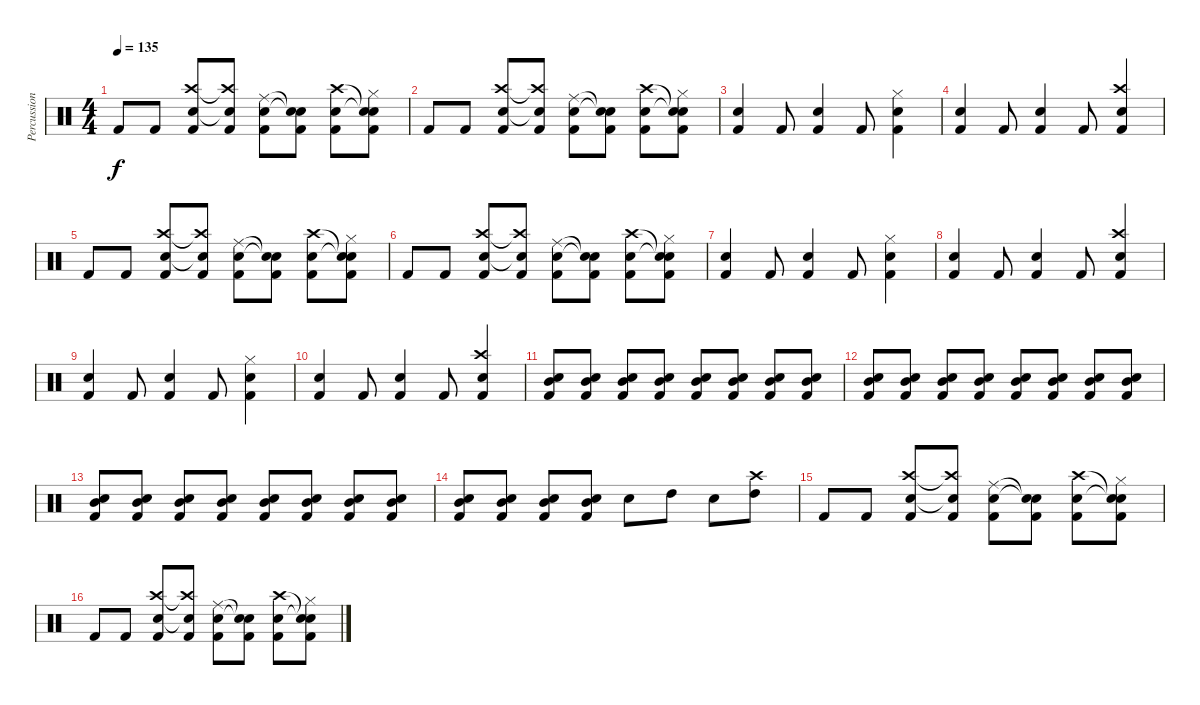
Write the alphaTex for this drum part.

\track ("Percussion" "Percussion") {instrument percussion}
\staff {score}
\articulation defaults
\ts (4 4)
\tempo 135
\clef neutral
\ks c "Kick (hit) 2".8{dy f} "Kick (hit) 2".8
("Crash high (hit)" "Electric Snare (hit)" "Kick (hit) 2").8 ("Crash high (hit)"{t} "Electric Snare (hit)"{t} "Kick (hit) 2").8 ("Ride (middle)" "Electric Snare (hit)" "Kick (hit) 2").8 ("Snare (hit)"{t} "Snare (hit)"{t} "Kick (hit) 2").8 ("Crash high (hit)" "Electric Snare (hit)" "Kick (hit) 2").8 ("Snare (hit)"{t} "Snare (hit)"{t} "Hi-Hat (closed)" "Kick (hit) 2").8 |
"Kick (hit) 2".8 "Kick (hit) 2".8 ("Crash high (hit)" "Electric Snare (hit)" "Kick (hit) 2").8 ("Crash high (hit)"{t} "Electric Snare (hit)"{t} "Kick (hit) 2").8 ("Ride (middle)" "Electric Snare (hit)" "Kick (hit) 2").8 ("Snare (hit)"{t} "Snare (hit)"{t} "Kick (hit) 2").8 ("Crash high (hit)" "Electric Snare (hit)" "Kick (hit) 2").8 ("Snare (hit)"{t} "Snare (hit)"{t} "Hi-Hat (closed)" "Kick (hit) 2").8 |
("Electric Snare (hit)" "Kick (hit) 2").4 "Kick (hit) 2".8 ("Electric Snare (hit)" "Kick (hit) 2").4 "Kick (hit) 2".8 ("Hi-Hat (closed)" "Electric Snare (hit)" "Kick (hit) 2").4 |
("Electric Snare (hit)" "Kick (hit) 2").4 "Kick (hit) 2".8 ("Electric Snare (hit)" "Kick (hit) 2").4 "Kick (hit) 2".8 ("Crash high (hit)" "Electric Snare (hit)" "Kick (hit) 2").4 |
"Kick (hit) 2".8 "Kick (hit) 2".8 ("Crash high (hit)" "Electric Snare (hit)" "Kick (hit) 2").8 ("Crash high (hit)"{t} "Electric Snare (hit)"{t} "Kick (hit) 2").8 ("Ride (middle)" "Electric Snare (hit)" "Kick (hit) 2").8 ("Snare (hit)"{t} "Snare (hit)"{t} "Kick (hit) 2").8 ("Crash high (hit)" "Electric Snare (hit)" "Kick (hit) 2").8 ("Snare (hit)"{t} "Snare (hit)"{t} "Hi-Hat (closed)" "Kick (hit) 2").8 |
"Kick (hit) 2".8 "Kick (hit) 2".8 ("Crash high (hit)" "Electric Snare (hit)" "Kick (hit) 2").8 ("Crash high (hit)"{t} "Electric Snare (hit)"{t} "Kick (hit) 2").8 ("Ride (middle)" "Electric Snare (hit)" "Kick (hit) 2").8 ("Snare (hit)"{t} "Snare (hit)"{t} "Kick (hit) 2").8 ("Crash high (hit)" "Electric Snare (hit)" "Kick (hit) 2").8 ("Snare (hit)"{t} "Snare (hit)"{t} "Hi-Hat (closed)" "Kick (hit) 2").8 |
("Electric Snare (hit)" "Kick (hit) 2").4 "Kick (hit) 2".8 ("Electric Snare (hit)" "Kick (hit) 2").4 "Kick (hit) 2".8 ("Hi-Hat (closed)" "Electric Snare (hit)" "Kick (hit) 2").4 |
("Electric Snare (hit)" "Kick (hit) 2").4 "Kick (hit) 2".8 ("Electric Snare (hit)" "Kick (hit) 2").4 "Kick (hit) 2".8 ("Crash high (hit)" "Electric Snare (hit)" "Kick (hit) 2").4 |
("Electric Snare (hit)" "Kick (hit) 2").4 "Kick (hit) 2".8 ("Electric Snare (hit)" "Kick (hit) 2").4 "Kick (hit) 2".8 ("Hi-Hat (closed)" "Electric Snare (hit)" "Kick (hit) 2").4 |
("Electric Snare (hit)" "Kick (hit) 2").4 "Kick (hit) 2".8 ("Electric Snare (hit)" "Kick (hit) 2").4 "Kick (hit) 2".8 ("Crash high (hit)" "Electric Snare (hit)" "Kick (hit) 2").4 |
("Electric Snare (hit)" "Mid Tom (hit)" "Kick (hit) 2").8 ("Electric Snare (hit)" "Mid Tom (hit)" "Kick (hit) 2").8 ("Electric Snare (hit)" "Mid Tom (hit)" "Kick (hit) 2").8 ("Electric Snare (hit)" "Mid Tom (hit)" "Kick (hit) 2").8 ("Electric Snare (hit)" "Mid Tom (hit)" "Kick (hit) 2").8 ("Electric Snare (hit)" "Mid Tom (hit)" "Kick (hit) 2").8 ("Electric Snare (hit)" "Mid Tom (hit)" "Kick (hit) 2").8 ("Electric Snare (hit)" "Mid Tom (hit)" "Kick (hit) 2").8 |
("Electric Snare (hit)" "Mid Tom (hit)" "Kick (hit) 2").8 ("Electric Snare (hit)" "Mid Tom (hit)" "Kick (hit) 2").8 ("Electric Snare (hit)" "Mid Tom (hit)" "Kick (hit) 2").8 ("Electric Snare (hit)" "Mid Tom (hit)" "Kick (hit) 2").8 ("Electric Snare (hit)" "Mid Tom (hit)" "Kick (hit) 2").8 ("Electric Snare (hit)" "Mid Tom (hit)" "Kick (hit) 2").8 ("Electric Snare (hit)" "Mid Tom (hit)" "Kick (hit) 2").8 ("Electric Snare (hit)" "Mid Tom (hit)" "Kick (hit) 2").8 |
("Electric Snare (hit)" "Mid Tom (hit)" "Kick (hit) 2").8 ("Electric Snare (hit)" "Mid Tom (hit)" "Kick (hit) 2").8 ("Electric Snare (hit)" "Mid Tom (hit)" "Kick (hit) 2").8 ("Electric Snare (hit)" "Mid Tom (hit)" "Kick (hit) 2").8 ("Electric Snare (hit)" "Mid Tom (hit)" "Kick (hit) 2").8 ("Electric Snare (hit)" "Mid Tom (hit)" "Kick (hit) 2").8 ("Electric Snare (hit)" "Mid Tom (hit)" "Kick (hit) 2").8 ("Electric Snare (hit)" "Mid Tom (hit)" "Kick (hit) 2").8 |
("Electric Snare (hit)" "Mid Tom (hit)" "Kick (hit) 2").8 ("Electric Snare (hit)" "Mid Tom (hit)" "Kick (hit) 2").8 ("Electric Snare (hit)" "Mid Tom (hit)" "Kick (hit) 2").8 ("Electric Snare (hit)" "Mid Tom (hit)" "Kick (hit) 2").8 "Electric Snare (hit)".8 "High Tom (hit)".8 "Electric Snare (hit)".8 ("Crash high (hit)" "High Tom (hit)").8 |
"Kick (hit) 2".8 "Kick (hit) 2".8 ("Crash high (hit)" "Electric Snare (hit)" "Kick (hit) 2").8 ("Crash high (hit)"{t} "Electric Snare (hit)"{t} "Kick (hit) 2").8 ("Ride (middle)" "Electric Snare (hit)" "Kick (hit) 2").8 ("Snare (hit)"{t} "Snare (hit)"{t} "Kick (hit) 2").8 ("Crash high (hit)" "Electric Snare (hit)" "Kick (hit) 2").8 ("Snare (hit)"{t} "Snare (hit)"{t} "Hi-Hat (closed)" "Kick (hit) 2").8 |
"Kick (hit) 2".8 "Kick (hit) 2".8 ("Crash high (hit)" "Electric Snare (hit)" "Kick (hit) 2").8 ("Crash high (hit)"{t} "Electric Snare (hit)"{t} "Kick (hit) 2").8 ("Ride (middle)" "Electric Snare (hit)" "Kick (hit) 2").8 ("Snare (hit)"{t} "Snare (hit)"{t} "Kick (hit) 2").8 ("Crash high (hit)" "Electric Snare (hit)" "Kick (hit) 2").8 ("Snare (hit)"{t} "Snare (hit)"{t} "Hi-Hat (closed)" "Kick (hit) 2").8
